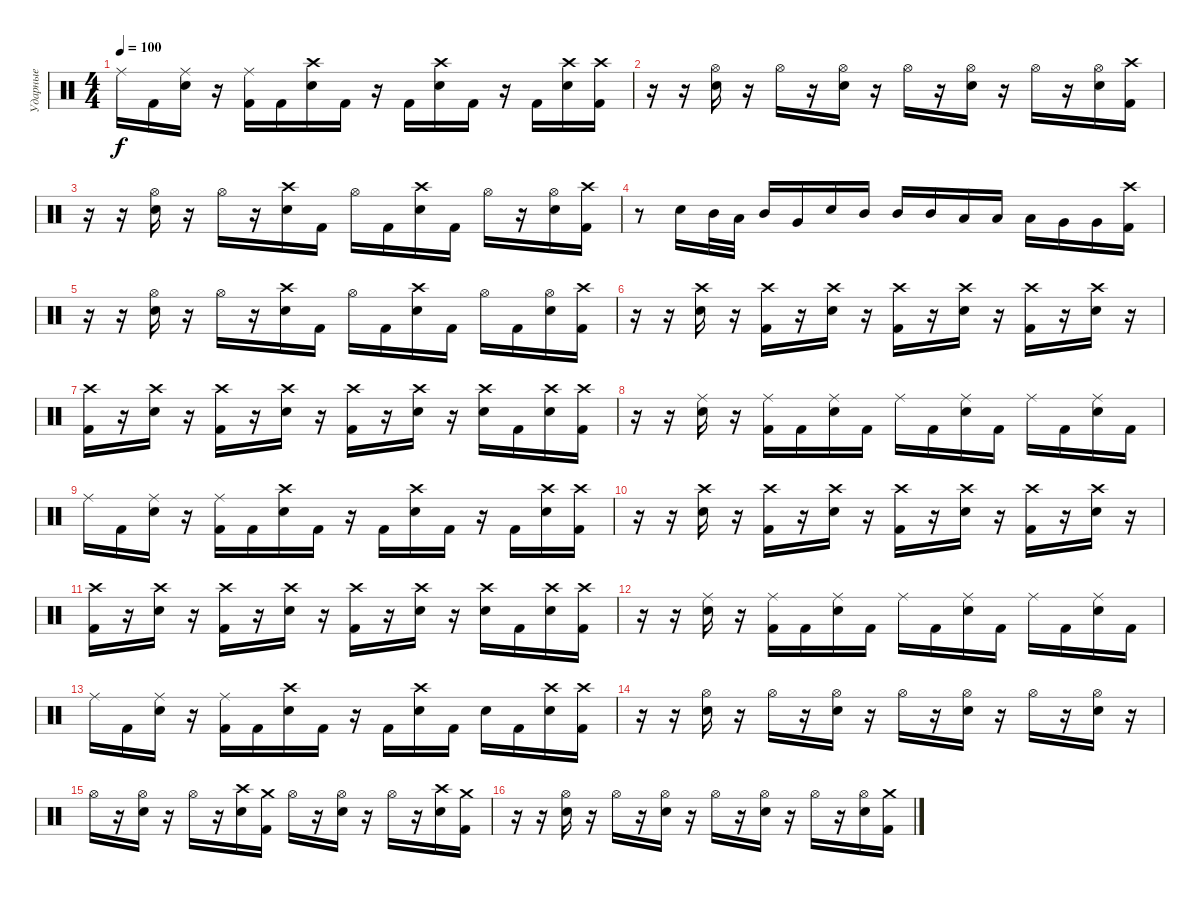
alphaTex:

\track ("Ударные" "Ударные") {instrument percussion}
\staff {score}
\articulation defaults
\ts (4 4)
\tempo 100
\clef neutral
\ks c "Ride (middle)".16{dy f} "Kick (hit) 2".16
("Ride (middle)" "Electric Snare (hit)").16 r.16 ("Ride (middle)" "Kick (hit) 2").16 "Kick (hit) 2".16 ("Crash high (hit)" "Electric Snare (hit)").16 "Kick (hit) 2".16 r.16 "Kick (hit) 2".16 ("Crash high (hit)" "Electric Snare (hit)").16 "Kick (hit) 2".16 r.16 "Kick (hit) 2".16 ("Crash high (hit)" "Electric Snare (hit)").16 ("Crash high (hit)" "Kick (hit) 2").16 |
r.16 r.16 ("Hi-Hat (open)" "Electric Snare (hit)").16 r.16 "Hi-Hat (open)".16 r.16 ("Hi-Hat (open)" "Electric Snare (hit)").16 r.16 "Hi-Hat (open)".16 r.16 ("Hi-Hat (open)" "Electric Snare (hit)").16 r.16 "Hi-Hat (open)".16 r.16 ("Hi-Hat (open)" "Electric Snare (hit)").16 ("Crash high (hit)" "Kick (hit) 2").16 |
r.16 r.16 ("Hi-Hat (open)" "Electric Snare (hit)").16 r.16 "Hi-Hat (open)".16 r.16 ("Crash high (hit)" "Electric Snare (hit)").16 "Kick (hit) 2".16 "Hi-Hat (open)".16 "Kick (hit) 2".16 ("Crash high (hit)" "Electric Snare (hit)").16 "Kick (hit) 2".16 "Hi-Hat (open)".16 r.16 ("Hi-Hat (open)" "Electric Snare (hit)").16 ("Crash high (hit)" "Kick (hit) 2").16 |
r.8 "Electric Snare (hit)".16 "Mid Tom (hit)".32 "Low Tom (hit)".32 "Mid Tom (hit)".16 "Very Low Tom (hit)".16 "Electric Snare (hit)".16 "Mid Tom (hit)".16 "Mid Tom (hit)".16 "Mid Tom (hit)".16 "Low Tom (hit)".16 "Low Tom (hit)".16 "Low Tom (hit)".16 "Very Low Tom (hit)".16 "Very Low Tom (hit)".16 ("Crash high (hit)" "Kick (hit) 2").16 |
r.16 r.16 ("Hi-Hat (open)" "Electric Snare (hit)").16 r.16 "Hi-Hat (open)".16 r.16 ("Crash high (hit)" "Electric Snare (hit)").16 "Kick (hit) 2".16 "Hi-Hat (open)".16 "Kick (hit) 2".16 ("Crash high (hit)" "Electric Snare (hit)").16 "Kick (hit) 2".16 "Hi-Hat (open)".16 "Kick (hit) 2".16 ("Hi-Hat (open)" "Electric Snare (hit)").16 ("Crash high (hit)" "Kick (hit) 2").16 |
r.16 r.16 ("Crash high (hit)" "Electric Snare (hit)").16 r.16 ("Crash high (hit)" "Kick (hit) 2").16 r.16 ("Crash high (hit)" "Electric Snare (hit)").16 r.16 ("Crash high (hit)" "Kick (hit) 2").16 r.16 ("Crash high (hit)" "Electric Snare (hit)").16 r.16 ("Crash high (hit)" "Kick (hit) 2").16 r.16 ("Crash high (hit)" "Electric Snare (hit)").16 r.16 |
("Crash high (hit)" "Kick (hit) 2").16 r.16 ("Crash high (hit)" "Electric Snare (hit)").16 r.16 ("Crash high (hit)" "Kick (hit) 2").16 r.16 ("Crash high (hit)" "Electric Snare (hit)").16 r.16 ("Crash high (hit)" "Kick (hit) 2").16 r.16 ("Crash high (hit)" "Electric Snare (hit)").16 r.16 ("Crash high (hit)" "Electric Snare (hit)").16 "Kick (hit) 2".16 ("Crash high (hit)" "Electric Snare (hit)").16 ("Crash high (hit)" "Kick (hit) 2").16 |
r.16 r.16 ("Ride (middle)" "Electric Snare (hit)").16 r.16 ("Ride (middle)" "Kick (hit) 2").16 "Kick (hit) 2".16 ("Ride (middle)" "Electric Snare (hit)").16 "Kick (hit) 2".16 "Ride (middle)".16 "Kick (hit) 2".16 ("Ride (middle)" "Electric Snare (hit)").16 "Kick (hit) 2".16 "Ride (middle)".16 "Kick (hit) 2".16 ("Ride (middle)" "Electric Snare (hit)").16 "Kick (hit) 2".16 |
"Ride (middle)".16 "Kick (hit) 2".16 ("Ride (middle)" "Electric Snare (hit)").16 r.16 ("Ride (middle)" "Kick (hit) 2").16 "Kick (hit) 2".16 ("Crash high (hit)" "Electric Snare (hit)").16 "Kick (hit) 2".16 r.16 "Kick (hit) 2".16 ("Crash high (hit)" "Electric Snare (hit)").16 "Kick (hit) 2".16 r.16 "Kick (hit) 2".16 ("Crash high (hit)" "Electric Snare (hit)").16 ("Crash high (hit)" "Kick (hit) 2").16 |
r.16 r.16 ("Crash high (hit)" "Electric Snare (hit)").16 r.16 ("Crash high (hit)" "Kick (hit) 2").16 r.16 ("Crash high (hit)" "Electric Snare (hit)").16 r.16 ("Crash high (hit)" "Kick (hit) 2").16 r.16 ("Crash high (hit)" "Electric Snare (hit)").16 r.16 ("Crash high (hit)" "Kick (hit) 2").16 r.16 ("Crash high (hit)" "Electric Snare (hit)").16 r.16 |
("Crash high (hit)" "Kick (hit) 2").16 r.16 ("Crash high (hit)" "Electric Snare (hit)").16 r.16 ("Crash high (hit)" "Kick (hit) 2").16 r.16 ("Crash high (hit)" "Electric Snare (hit)").16 r.16 ("Crash high (hit)" "Kick (hit) 2").16 r.16 ("Crash high (hit)" "Electric Snare (hit)").16 r.16 ("Crash high (hit)" "Electric Snare (hit)").16 "Kick (hit) 2".16 ("Crash high (hit)" "Electric Snare (hit)").16 ("Crash high (hit)" "Kick (hit) 2").16 |
r.16 r.16 ("Ride (middle)" "Electric Snare (hit)").16 r.16 ("Ride (middle)" "Kick (hit) 2").16 "Kick (hit) 2".16 ("Ride (middle)" "Electric Snare (hit)").16 "Kick (hit) 2".16 "Ride (middle)".16 "Kick (hit) 2".16 ("Ride (middle)" "Electric Snare (hit)").16 "Kick (hit) 2".16 "Ride (middle)".16 "Kick (hit) 2".16 ("Ride (middle)" "Electric Snare (hit)").16 "Kick (hit) 2".16 |
"Ride (middle)".16 "Kick (hit) 2".16 ("Ride (middle)" "Electric Snare (hit)").16 r.16 ("Ride (middle)" "Kick (hit) 2").16 "Kick (hit) 2".16 ("Crash high (hit)" "Electric Snare (hit)").16 "Kick (hit) 2".16 r.16 "Kick (hit) 2".16 ("Crash high (hit)" "Electric Snare (hit)").16 "Kick (hit) 2".16 "Electric Snare (hit)".16 "Kick (hit) 2".16 ("Crash high (hit)" "Electric Snare (hit)").16 ("Crash high (hit)" "Kick (hit) 2").16 |
r.16 r.16 ("Hi-Hat (open)" "Electric Snare (hit)").16 r.16 "Hi-Hat (open)".16 r.16 ("Hi-Hat (open)" "Electric Snare (hit)").16 r.16 "Hi-Hat (open)".16 r.16 ("Hi-Hat (open)" "Electric Snare (hit)").16 r.16 "Hi-Hat (open)".16 r.16 ("Hi-Hat (open)" "Electric Snare (hit)").16 r.16 |
"Hi-Hat (open)".16 r.16 ("Hi-Hat (open)" "Electric Snare (hit)").16 r.16 "Hi-Hat (open)".16 r.16 ("Crash high (hit)" "Electric Snare (hit)").16 ("Crash medium (hit)" "Kick (hit) 2").16 "Hi-Hat (open)".16 r.16 ("Hi-Hat (open)" "Electric Snare (hit)").16 r.16 "Hi-Hat (open)".16 r.16 ("Crash high (hit)" "Electric Snare (hit)").16 ("Crash medium (hit)" "Kick (hit) 2").16 |
r.16 r.16 ("Hi-Hat (open)" "Electric Snare (hit)").16 r.16 "Hi-Hat (open)".16 r.16 ("Hi-Hat (open)" "Electric Snare (hit)").16 r.16 "Hi-Hat (open)".16 r.16 ("Hi-Hat (open)" "Electric Snare (hit)").16 r.16 "Hi-Hat (open)".16 r.16 ("Hi-Hat (open)" "Electric Snare (hit)").16 ("Crash medium (hit)" "Kick (hit) 2").16
